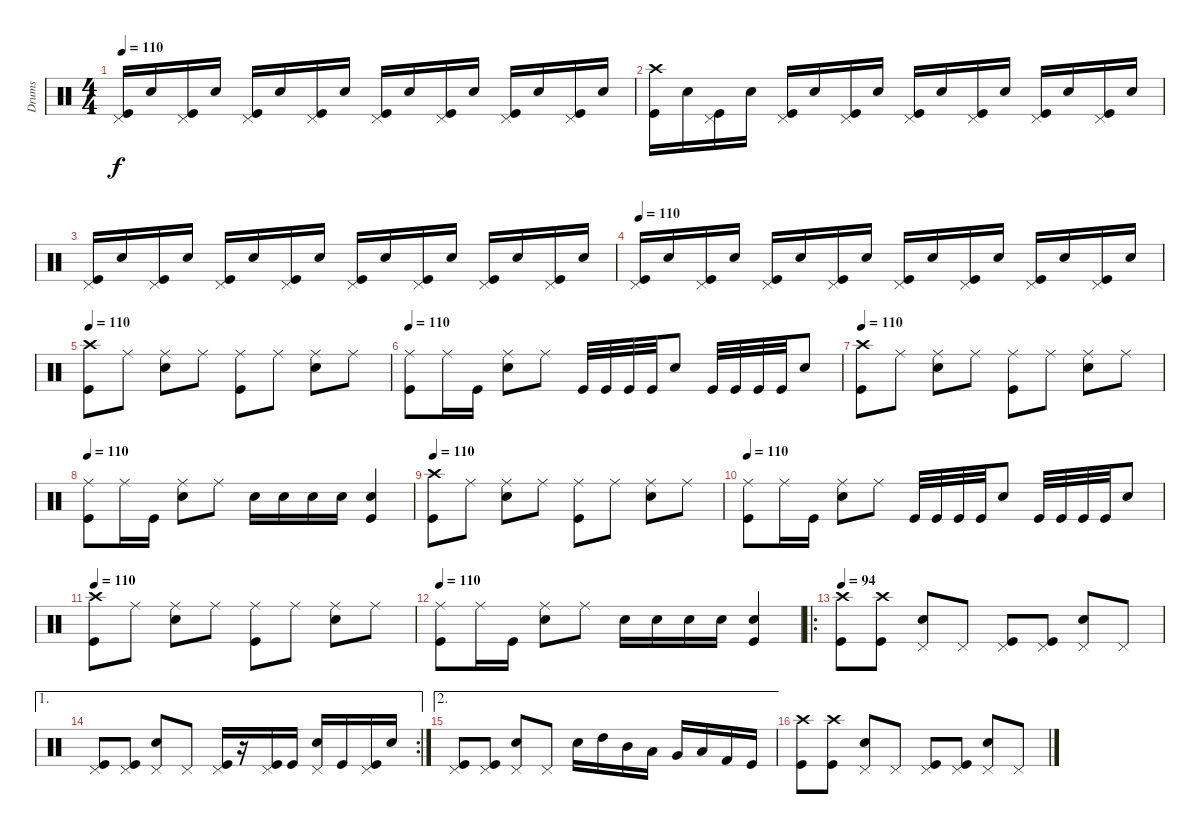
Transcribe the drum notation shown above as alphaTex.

\track ("Drums" "Drums") {instrument percussion}
\staff {score}
\articulation defaults
\ts (4 4)
\tempo 110
\clef neutral
\ks c
("Pedal Hi-Hat (hit)" "Kick (hit)").16{dy f} "Electric Snare (hit)".16 ("Pedal Hi-Hat (hit)" "Kick (hit)").16 "Electric Snare (hit)".16 ("Pedal Hi-Hat (hit)" "Kick (hit)").16 "Electric Snare (hit)".16 ("Pedal Hi-Hat (hit)" "Kick (hit)").16 "Electric Snare (hit)".16 ("Pedal Hi-Hat (hit)" "Kick (hit)").16 "Electric Snare (hit)".16 ("Pedal Hi-Hat (hit)" "Kick (hit)").16 "Electric Snare (hit)".16 ("Pedal Hi-Hat (hit)" "Kick (hit)").16 "Electric Snare (hit)".16 ("Pedal Hi-Hat (hit)" "Kick (hit)").16 "Electric Snare (hit)".16 |
("Crash high (hit)" "Kick (hit)").16 "Electric Snare (hit)".16 ("Pedal Hi-Hat (hit)" "Kick (hit)").16 "Electric Snare (hit)".16 ("Pedal Hi-Hat (hit)" "Kick (hit)").16 "Electric Snare (hit)".16 ("Pedal Hi-Hat (hit)" "Kick (hit)").16 "Electric Snare (hit)".16 ("Pedal Hi-Hat (hit)" "Kick (hit)").16 "Electric Snare (hit)".16 ("Pedal Hi-Hat (hit)" "Kick (hit)").16 "Electric Snare (hit)".16 ("Pedal Hi-Hat (hit)" "Kick (hit)").16 "Electric Snare (hit)".16 ("Pedal Hi-Hat (hit)" "Kick (hit)").16 "Electric Snare (hit)".16 |
("Pedal Hi-Hat (hit)" "Kick (hit)").16 "Electric Snare (hit)".16 ("Pedal Hi-Hat (hit)" "Kick (hit)").16 "Electric Snare (hit)".16 ("Pedal Hi-Hat (hit)" "Kick (hit)").16 "Electric Snare (hit)".16 ("Pedal Hi-Hat (hit)" "Kick (hit)").16 "Electric Snare (hit)".16 ("Pedal Hi-Hat (hit)" "Kick (hit)").16 "Electric Snare (hit)".16 ("Pedal Hi-Hat (hit)" "Kick (hit)").16 "Electric Snare (hit)".16 ("Pedal Hi-Hat (hit)" "Kick (hit)").16 "Electric Snare (hit)".16 ("Pedal Hi-Hat (hit)" "Kick (hit)").16 "Electric Snare (hit)".16 |
\tempo 110
("Pedal Hi-Hat (hit)" "Kick (hit)").16 "Electric Snare (hit)".16 ("Pedal Hi-Hat (hit)" "Kick (hit)").16 "Electric Snare (hit)".16 ("Pedal Hi-Hat (hit)" "Kick (hit)").16 "Electric Snare (hit)".16 ("Pedal Hi-Hat (hit)" "Kick (hit)").16 "Electric Snare (hit)".16 ("Pedal Hi-Hat (hit)" "Kick (hit)").16 "Electric Snare (hit)".16 ("Pedal Hi-Hat (hit)" "Kick (hit)").16 "Electric Snare (hit)".16 ("Pedal Hi-Hat (hit)" "Kick (hit)").16 "Electric Snare (hit)".16 ("Pedal Hi-Hat (hit)" "Kick (hit)").16 "Electric Snare (hit)".16 |
\tempo 100
\tempo 110
("Crash high (hit)" "Kick (hit)").8 "Ride (middle)".8 ("Ride (middle)" "Electric Snare (hit)").8 "Ride (middle)".8 ("Ride (middle)" "Kick (hit)").8 "Ride (middle)".8 ("Ride (middle)" "Electric Snare (hit)").8 "Ride (middle)".8 |
\tempo 110
("Ride (middle)" "Kick (hit)").8 "Ride (middle)".16 "Kick (hit)".16 ("Ride (middle)" "Electric Snare (hit)").8 "Ride (middle)".8 "Kick (hit)".32 "Kick (hit)".32 "Kick (hit)".32 "Kick (hit)".32 "Electric Snare (hit)".8 "Kick (hit)".32 "Kick (hit)".32 "Kick (hit)".32 "Kick (hit)".32 "Electric Snare (hit)".8 |
\tempo 100
\tempo 110
("Crash high (hit)" "Kick (hit)").8 "Ride (middle)".8 ("Ride (middle)" "Electric Snare (hit)").8 "Ride (middle)".8 ("Ride (middle)" "Kick (hit)").8 "Ride (middle)".8 ("Ride (middle)" "Electric Snare (hit)").8 "Ride (middle)".8 |
\tempo 110
("Ride (middle)" "Kick (hit)").8 "Ride (middle)".16 "Kick (hit)".16 ("Ride (middle)" "Electric Snare (hit)").8 "Ride (middle)".8 "Electric Snare (hit)".16 "Electric Snare (hit)".16 "Electric Snare (hit)".16 "Electric Snare (hit)".16 ("Electric Snare (hit)" "Kick (hit)").4 |
\tempo 110
("Crash high (hit)" "Kick (hit)").8 "Ride (middle)".8 ("Ride (middle)" "Electric Snare (hit)").8 "Ride (middle)".8 ("Ride (middle)" "Kick (hit)").8 "Ride (middle)".8 ("Ride (middle)" "Electric Snare (hit)").8 "Ride (middle)".8 |
\tempo 110
("Ride (middle)" "Kick (hit)").8 "Ride (middle)".16 "Kick (hit)".16 ("Ride (middle)" "Electric Snare (hit)").8 "Ride (middle)".8 "Kick (hit)".32 "Kick (hit)".32 "Kick (hit)".32 "Kick (hit)".32 "Electric Snare (hit)".8 "Kick (hit)".32 "Kick (hit)".32 "Kick (hit)".32 "Kick (hit)".32 "Electric Snare (hit)".8 |
\tempo 110
("Crash high (hit)" "Kick (hit)").8 "Ride (middle)".8 ("Ride (middle)" "Electric Snare (hit)").8 "Ride (middle)".8 ("Ride (middle)" "Kick (hit)").8 "Ride (middle)".8 ("Ride (middle)" "Electric Snare (hit)").8 "Ride (middle)".8 |
\tempo 110
("Ride (middle)" "Kick (hit)").8 "Ride (middle)".16 "Kick (hit)".16 ("Ride (middle)" "Electric Snare (hit)").8 "Ride (middle)".8 "Electric Snare (hit)".16 "Electric Snare (hit)".16 "Electric Snare (hit)".16 "Electric Snare (hit)".16 ("Electric Snare (hit)" "Kick (hit)").4 |
\ro
\tempo 94
("Crash high (hit)" "Kick (hit)").8 ("Crash high (hit)" "Kick (hit)").8 ("Pedal Hi-Hat (hit)" "Electric Snare (hit)").8 "Pedal Hi-Hat (hit)".8 ("Pedal Hi-Hat (hit)" "Kick (hit)").8 ("Pedal Hi-Hat (hit)" "Kick (hit)").8 ("Pedal Hi-Hat (hit)" "Electric Snare (hit)").8 "Pedal Hi-Hat (hit)".8 |
\ae 1
\rc 2
("Pedal Hi-Hat (hit)" "Kick (hit)").8 ("Pedal Hi-Hat (hit)" "Kick (hit)").8 ("Pedal Hi-Hat (hit)" "Electric Snare (hit)").8 "Pedal Hi-Hat (hit)".8 ("Pedal Hi-Hat (hit)" "Kick (hit)").16 r.16 ("Pedal Hi-Hat (hit)" "Kick (hit)").16 "Kick (hit)".16 ("Pedal Hi-Hat (hit)" "Electric Snare (hit)").16 "Kick (hit)".16 ("Pedal Hi-Hat (hit)" "Kick (hit)").16 "Electric Snare (hit)".16 |
\ae 2
("Pedal Hi-Hat (hit)" "Kick (hit)").8 ("Pedal Hi-Hat (hit)" "Kick (hit)").8 ("Pedal Hi-Hat (hit)" "Electric Snare (hit)").8 "Pedal Hi-Hat (hit)".8 "Electric Snare (hit)".16 "High Tom (hit)".16 "Mid Tom (hit)".16 "Low Tom (hit)".16 "Very Low Tom (hit)".16 "Low Floor Tom (hit)".16 "Kick (hit) 2".16 "Kick (hit)".16 |
("Crash high (hit)" "Kick (hit)").8 ("Crash high (hit)" "Kick (hit)").8 ("Pedal Hi-Hat (hit)" "Electric Snare (hit)").8 "Pedal Hi-Hat (hit)".8 ("Pedal Hi-Hat (hit)" "Kick (hit)").8 ("Pedal Hi-Hat (hit)" "Kick (hit)").8 ("Pedal Hi-Hat (hit)" "Electric Snare (hit)").8 "Pedal Hi-Hat (hit)".8
